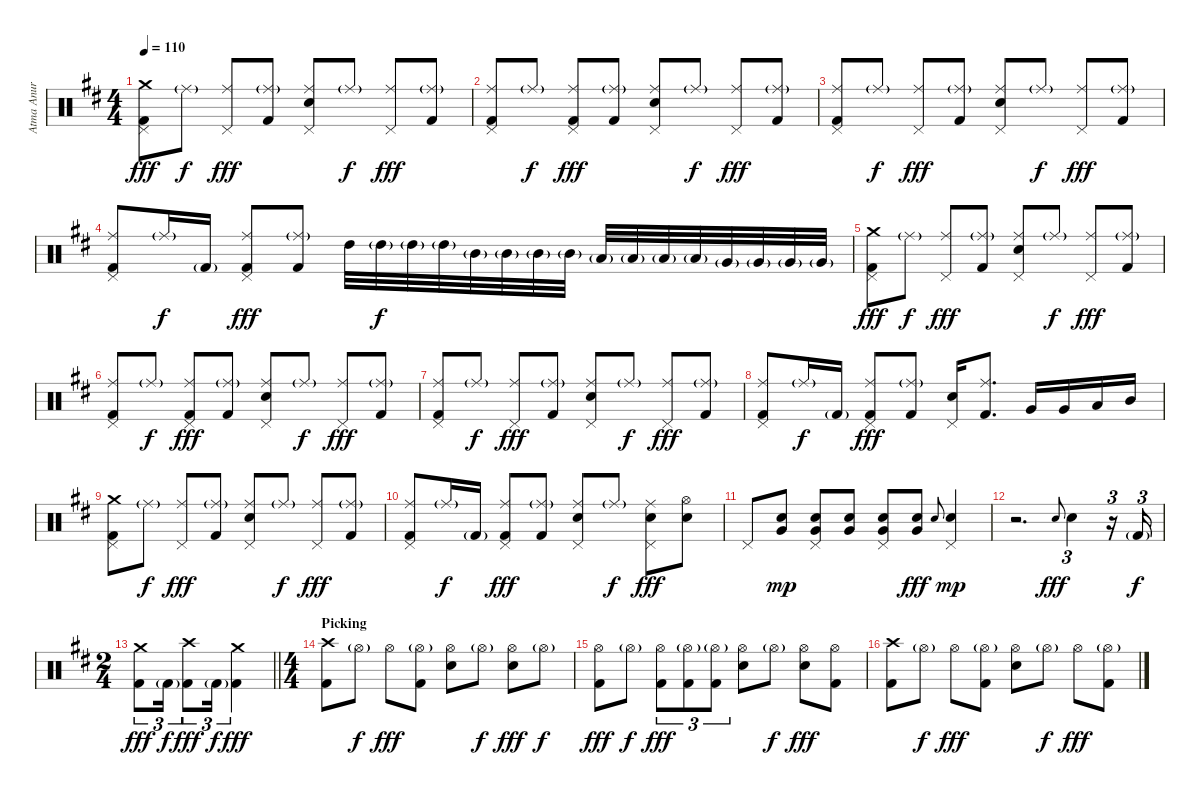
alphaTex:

\track ("Atma Anur" "Atma Anur") {instrument percussion}
\staff {score}
\articulation defaults
\ts (4 4)
\tempo 110
\clef neutral
\ks bminor
("Crash medium (hit)" "Pedal Hi-Hat (hit)" "Kick (hit) 2").8{dy fff} "Ride (middle)"{g}.8{dy f} ("Ride (middle)" "Pedal Hi-Hat (hit)").8{dy fff} ("Ride (middle)"{g} "Kick (hit) 2").8 ("Ride (middle)" "Electric Snare (hit)" "Pedal Hi-Hat (hit)").8 "Ride (middle)"{g}.8{dy f} ("Ride (middle)" "Pedal Hi-Hat (hit)").8{dy fff} ("Ride (middle)"{g} "Kick (hit) 2").8 |
("Ride (middle)" "Pedal Hi-Hat (hit)" "Kick (hit) 2").8 "Ride (middle)"{g}.8{dy f} ("Ride (middle)" "Pedal Hi-Hat (hit)" "Kick (hit) 2").8{dy fff} ("Ride (middle)"{g} "Kick (hit) 2").8 ("Ride (middle)" "Electric Snare (hit)" "Pedal Hi-Hat (hit)").8 "Ride (middle)"{g}.8{dy f} ("Ride (middle)" "Pedal Hi-Hat (hit)").8{dy fff} ("Ride (middle)"{g} "Kick (hit) 2").8 |
("Ride (middle)" "Pedal Hi-Hat (hit)" "Kick (hit) 2").8 "Ride (middle)"{g}.8{dy f} ("Ride (middle)" "Pedal Hi-Hat (hit)").8{dy fff} ("Ride (middle)"{g} "Kick (hit) 2").8 ("Ride (middle)" "Electric Snare (hit)" "Pedal Hi-Hat (hit)").8 "Ride (middle)"{g}.8{dy f} ("Ride (middle)" "Pedal Hi-Hat (hit)").8{dy fff} ("Ride (middle)"{g} "Kick (hit) 2").8 |
("Ride (middle)" "Pedal Hi-Hat (hit)" "Kick (hit) 2").8 "Ride (middle)"{g}.16{dy f} "Kick (hit) 2"{g}.16 ("Ride (middle)" "Pedal Hi-Hat (hit)" "Kick (hit) 2").8{dy fff} ("Ride (middle)"{g} "Kick (hit) 2").8 "High Tom (hit)".32 "High Tom (hit)"{g}.32{dy f} "High Tom (hit)"{g}.32 "High Tom (hit)"{g}.32 "Mid Tom (hit)"{g}.32 "Mid Tom (hit)"{g}.32 "Mid Tom (hit)"{g}.32 "Mid Tom (hit)"{g}.32 "Low Tom (hit)"{g}.32 "Low Tom (hit)"{g}.32 "Low Tom (hit)"{g}.32 "Low Tom (hit)"{g}.32 "Very Low Tom (hit)"{g}.32 "Very Low Tom (hit)"{g}.32 "Very Low Tom (hit)"{g}.32 "Very Low Tom (hit)"{g}.32 |
("Crash medium (hit)" "Pedal Hi-Hat (hit)" "Kick (hit) 2").8{dy fff} "Ride (middle)"{g}.8{dy f} ("Ride (middle)" "Pedal Hi-Hat (hit)").8{dy fff} ("Ride (middle)"{g} "Kick (hit) 2").8 ("Ride (middle)" "Electric Snare (hit)" "Pedal Hi-Hat (hit)").8 "Ride (middle)"{g}.8{dy f} ("Ride (middle)" "Pedal Hi-Hat (hit)").8{dy fff} ("Ride (middle)"{g} "Kick (hit) 2").8 |
("Ride (middle)" "Pedal Hi-Hat (hit)" "Kick (hit) 2").8 "Ride (middle)"{g}.8{dy f} ("Ride (middle)" "Pedal Hi-Hat (hit)" "Kick (hit) 2").8{dy fff} ("Ride (middle)"{g} "Kick (hit) 2").8 ("Ride (middle)" "Electric Snare (hit)" "Pedal Hi-Hat (hit)").8 "Ride (middle)"{g}.8{dy f} ("Ride (middle)" "Pedal Hi-Hat (hit)").8{dy fff} ("Ride (middle)"{g} "Kick (hit) 2").8 |
("Ride (middle)" "Pedal Hi-Hat (hit)" "Kick (hit) 2").8 "Ride (middle)"{g}.8{dy f} ("Ride (middle)" "Pedal Hi-Hat (hit)").8{dy fff} ("Ride (middle)"{g} "Kick (hit) 2").8 ("Ride (middle)" "Electric Snare (hit)" "Pedal Hi-Hat (hit)").8 "Ride (middle)"{g}.8{dy f} ("Ride (middle)" "Pedal Hi-Hat (hit)").8{dy fff} ("Ride (middle)"{g} "Kick (hit) 2").8 |
("Ride (middle)" "Pedal Hi-Hat (hit)" "Kick (hit) 2").8 "Ride (middle)"{g}.16{dy f} "Kick (hit) 2"{g}.16 ("Ride (middle)" "Pedal Hi-Hat (hit)" "Kick (hit) 2").8{dy fff} ("Ride (middle)"{g} "Kick (hit) 2").8 ("Electric Snare (hit)" "Pedal Hi-Hat (hit)").16 ("Ride (middle)" "Kick (hit) 2").8{d} "Very Low Tom (hit)".16 "Very Low Tom (hit)".16 "Low Tom (hit)".16 "Mid Tom (hit)".16 |
("Crash medium (hit)" "Pedal Hi-Hat (hit)" "Kick (hit) 2").8 "Ride (middle)"{g}.8{dy f} ("Ride (middle)" "Pedal Hi-Hat (hit)").8{dy fff} ("Ride (middle)"{g} "Kick (hit) 2").8 ("Ride (middle)" "Electric Snare (hit)" "Pedal Hi-Hat (hit)").8 "Ride (middle)"{g}.8{dy f} ("Ride (middle)" "Pedal Hi-Hat (hit)").8{dy fff} ("Ride (middle)"{g} "Kick (hit) 2").8 |
("Ride (middle)" "Pedal Hi-Hat (hit)" "Kick (hit) 2").8 "Ride (middle)"{g}.16{dy f} "Kick (hit) 2"{g}.16 ("Ride (middle)" "Pedal Hi-Hat (hit)" "Kick (hit) 2").8{dy fff} ("Ride (middle)"{g} "Kick (hit) 2").8 ("Ride (middle)" "Electric Snare (hit)" "Pedal Hi-Hat (hit)").8 "Ride (middle)"{g}.8{dy f} ("Ride (middle)" "Electric Snare (hit)" "Pedal Hi-Hat (hit)").8{dy fff} ("Hi-Hat (open)" "Electric Snare (hit)").8 |
"Pedal Hi-Hat (hit)".8 ("Very Low Tom (hit)" "Electric Snare (hit)").8{dy mp} ("Very Low Tom (hit)" "Electric Snare (hit)" "Pedal Hi-Hat (hit)").8 ("Very Low Tom (hit)" "Electric Snare (hit)").8 ("Very Low Tom (hit)" "Electric Snare (hit)" "Pedal Hi-Hat (hit)").8 ("Very Low Tom (hit)" "Electric Snare (hit)").8{dy fff} "Electric Snare (hit)".8{gr onbeat} ("Electric Snare (hit)" "Pedal Hi-Hat (hit)").4{dy mp} |
r.2{d} "Electric Snare (hit)".8{gr onbeat dy fff} "Electric Snare (hit)".4{tu (3 2)} r.16{tu (3 2)} "Kick (hit) 2"{g}.16{tu (3 2) dy f} |
\ts (2 4)
\barLineRight lightlight
("Crash medium (hit)" "Kick (hit) 2").8{tu (3 2) dy fff} "Kick (hit) 2"{g}.16{tu (3 2) dy f} ("Crash high (hit)" "Kick (hit) 2").8{tu (3 2) dy fff} "Kick (hit) 2"{g}.16{tu (3 2) dy f} ("Crash medium (hit)" "Kick (hit) 2").4{dy fff} |
\ts (4 4)
\section ("" "Picking")
("Crash high (hit)" "Kick (hit) 2").8 "Hi-Hat (open)"{g}.8{dy f} "Hi-Hat (open)".8{dy fff} ("Hi-Hat (open)"{g} "Kick (hit) 2").8 ("Hi-Hat (open)" "Electric Snare (hit)").8 "Hi-Hat (open)"{g}.8{dy f} ("Hi-Hat (open)" "Electric Snare (hit)").8{dy fff} "Hi-Hat (open)"{g}.8{dy f} |
("Hi-Hat (open)" "Kick (hit) 2").8{dy fff} "Hi-Hat (open)"{g}.8{dy f} ("Hi-Hat (open)" "Kick (hit) 2").8{tu (3 2) dy fff} ("Hi-Hat (open)"{g} "Kick (hit) 2").8{tu (3 2)} ("Hi-Hat (open)"{g} "Kick (hit) 2").8{tu (3 2)} ("Hi-Hat (open)" "Electric Snare (hit)").8 "Hi-Hat (open)"{g}.8{dy f} ("Hi-Hat (open)" "Electric Snare (hit)").8{dy fff} ("Hi-Hat (open)" "Kick (hit) 2").8 |
("Crash high (hit)" "Kick (hit) 2").8 "Hi-Hat (open)"{g}.8{dy f} "Hi-Hat (open)".8{dy fff} ("Hi-Hat (open)"{g} "Kick (hit) 2").8 ("Hi-Hat (open)" "Electric Snare (hit)").8 "Hi-Hat (open)"{g}.8{dy f} "Hi-Hat (open)".8{dy fff} ("Hi-Hat (open)"{g} "Kick (hit) 2").8
